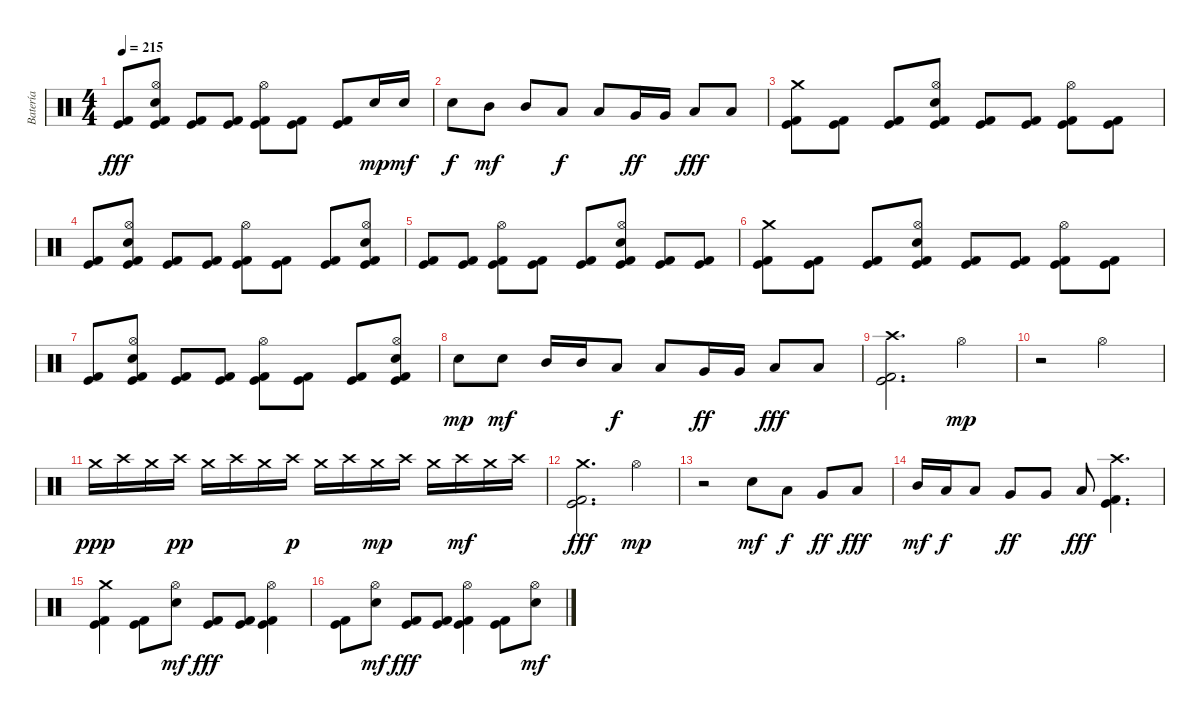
\track ("Batería" "Batería") {instrument percussion}
\staff {score}
\articulation defaults
\ts (4 4)
\tempo 215
\clef neutral
\ks c
("Kick (hit) 2" "Kick (hit)").8{dy fff} ("Hi-Hat (open)" "Electric Snare (hit)" "Kick (hit) 2" "Kick (hit)").8 ("Kick (hit) 2" "Kick (hit)").8 ("Kick (hit) 2" "Kick (hit)").8 ("Hi-Hat (open)" "Kick (hit) 2" "Kick (hit)").8 ("Kick (hit) 2" "Kick (hit)").8 ("Kick (hit) 2" "Kick (hit)").8 "Electric Snare (hit)".16{dy mp} "Electric Snare (hit)".16{dy mf} |
"Electric Snare (hit)".8{dy f} "Mid Tom (hit)".8{dy mf} "Mid Tom (hit)".8 "Low Tom (hit)".8{dy f} "Low Tom (hit)".8 "Very Low Tom (hit)".16{dy ff} "Very Low Tom (hit)".16 "Low Floor Tom (hit)".8{dy fff} "Low Floor Tom (hit)".8 |
("Crash medium (hit)" "Kick (hit) 2" "Kick (hit)").8 ("Kick (hit) 2" "Kick (hit)").8 ("Kick (hit) 2" "Kick (hit)").8 ("Hi-Hat (open)" "Electric Snare (hit)" "Kick (hit) 2" "Kick (hit)").8 ("Kick (hit) 2" "Kick (hit)").8 ("Kick (hit) 2" "Kick (hit)").8 ("Hi-Hat (open)" "Kick (hit) 2" "Kick (hit)").8 ("Kick (hit) 2" "Kick (hit)").8 |
("Kick (hit) 2" "Kick (hit)").8 ("Hi-Hat (open)" "Electric Snare (hit)" "Kick (hit) 2" "Kick (hit)").8 ("Kick (hit) 2" "Kick (hit)").8 ("Kick (hit) 2" "Kick (hit)").8 ("Hi-Hat (open)" "Kick (hit) 2" "Kick (hit)").8 ("Kick (hit) 2" "Kick (hit)").8 ("Kick (hit) 2" "Kick (hit)").8 ("Hi-Hat (open)" "Electric Snare (hit)" "Kick (hit) 2" "Kick (hit)").8 |
("Kick (hit) 2" "Kick (hit)").8 ("Kick (hit) 2" "Kick (hit)").8 ("Hi-Hat (open)" "Kick (hit) 2" "Kick (hit)").8 ("Kick (hit) 2" "Kick (hit)").8 ("Kick (hit) 2" "Kick (hit)").8 ("Hi-Hat (open)" "Electric Snare (hit)" "Kick (hit) 2" "Kick (hit)").8 ("Kick (hit) 2" "Kick (hit)").8 ("Kick (hit) 2" "Kick (hit)").8 |
("Crash medium (hit)" "Kick (hit) 2" "Kick (hit)").8 ("Kick (hit) 2" "Kick (hit)").8 ("Kick (hit) 2" "Kick (hit)").8 ("Hi-Hat (open)" "Electric Snare (hit)" "Kick (hit) 2" "Kick (hit)").8 ("Kick (hit) 2" "Kick (hit)").8 ("Kick (hit) 2" "Kick (hit)").8 ("Hi-Hat (open)" "Kick (hit) 2" "Kick (hit)").8 ("Kick (hit) 2" "Kick (hit)").8 |
("Kick (hit) 2" "Kick (hit)").8 ("Hi-Hat (open)" "Electric Snare (hit)" "Kick (hit) 2" "Kick (hit)").8 ("Kick (hit) 2" "Kick (hit)").8 ("Kick (hit) 2" "Kick (hit)").8 ("Hi-Hat (open)" "Kick (hit) 2" "Kick (hit)").8 ("Kick (hit) 2" "Kick (hit)").8 ("Kick (hit) 2" "Kick (hit)").8 ("Hi-Hat (open)" "Electric Snare (hit)" "Kick (hit) 2" "Kick (hit)").8 |
"Electric Snare (hit)".8{dy mp} "Electric Snare (hit)".8{dy mf} "Mid Tom (hit)".16 "Mid Tom (hit)".16 "Low Tom (hit)".8{dy f} "Low Tom (hit)".8 "Very Low Tom (hit)".16{dy ff} "Very Low Tom (hit)".16 "Low Floor Tom (hit)".8{dy fff} "Low Floor Tom (hit)".8 |
("Crash high (hit)" "Kick (hit) 2" "Kick (hit)").2{d} "Hi-Hat (open)".4{dy mp} |
r.2 "Hi-Hat (open)".2 |
"Crash medium (hit)".16{dy ppp} "Crash high (hit)".16 "Crash medium (hit)".16 "Crash high (hit)".16{dy pp} "Crash medium (hit)".16 "Crash high (hit)".16 "Crash medium (hit)".16 "Crash high (hit)".16{dy p} "Crash medium (hit)".16 "Crash high (hit)".16 "Crash medium (hit)".16{dy mp} "Crash high (hit)".16 "Crash medium (hit)".16 "Crash high (hit)".16{dy mf} "Crash medium (hit)".16 "Crash high (hit)".16 |
("Crash medium (hit)" "Kick (hit) 2" "Kick (hit)").2{d dy fff} "Hi-Hat (open)".4{dy mp} |
r.2 "Electric Snare (hit)".8{dy mf} "Low Tom (hit)".8{dy f} "Very Low Tom (hit)".8{dy ff} "Low Floor Tom (hit)".8{dy fff} |
"Mid Tom (hit)".16{dy mf} "Low Tom (hit)".16{dy f} "Low Tom (hit)".8 "Very Low Tom (hit)".8{dy ff} "Very Low Tom (hit)".8 "Low Floor Tom (hit)".8{dy fff} ("Crash high (hit)" "Kick (hit) 2" "Kick (hit)").4{d} |
("Crash medium (hit)" "Kick (hit) 2" "Kick (hit)").4 ("Kick (hit) 2" "Kick (hit)").8 ("Hi-Hat (open)" "Electric Snare (hit)").8{dy mf} ("Kick (hit) 2" "Kick (hit)").8{dy fff} ("Kick (hit) 2" "Kick (hit)").8 ("Hi-Hat (open)" "Kick (hit) 2" "Kick (hit)").4 |
("Kick (hit) 2" "Kick (hit)").8 ("Hi-Hat (open)" "Electric Snare (hit)").8{dy mf} ("Kick (hit) 2" "Kick (hit)").8{dy fff} ("Kick (hit) 2" "Kick (hit)").8 ("Hi-Hat (open)" "Kick (hit) 2" "Kick (hit)").4 ("Kick (hit) 2" "Kick (hit)").8 ("Hi-Hat (open)" "Electric Snare (hit)").8{dy mf}
